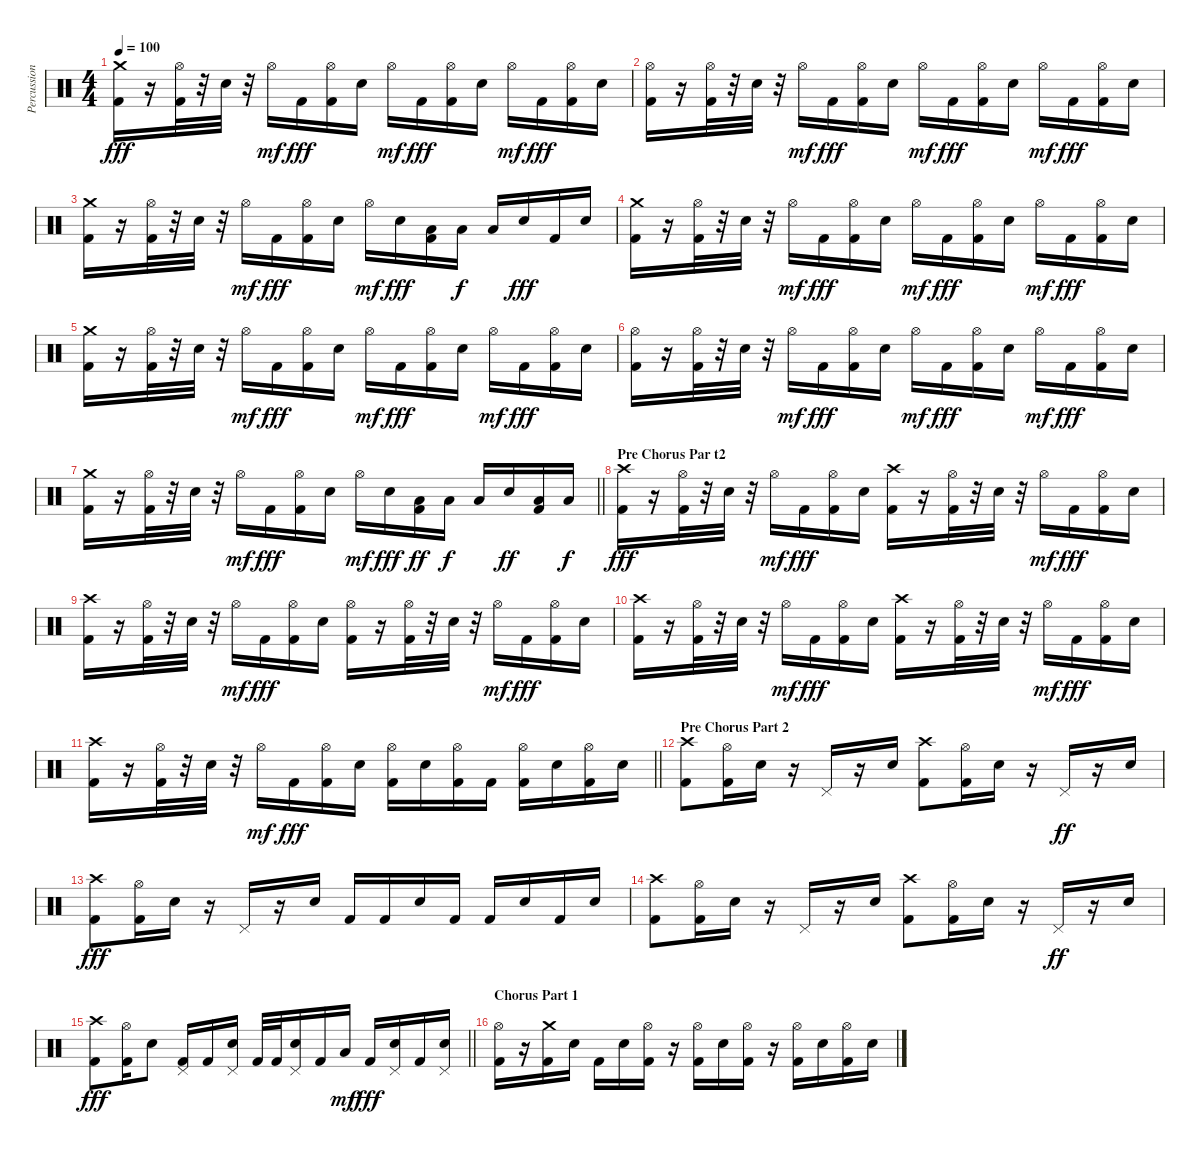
\track ("Percussion" "Percussion") {instrument percussion}
\staff {score}
\articulation defaults
\ts (4 4)
\tempo 100
\clef neutral
\ks c
("Crash medium (hit)" "Kick (hit) 2").16{dy fff} r.16 ("Hi-Hat (open)" "Kick (hit) 2").32 r.32 "Electric Snare (hit)".32 r.32 "Hi-Hat (open)".16{dy mf} "Kick (hit) 2".16{dy fff} ("Hi-Hat (open)" "Kick (hit) 2").16 "Electric Snare (hit)".16 "Hi-Hat (open)".16{dy mf} "Kick (hit) 2".16{dy fff} ("Hi-Hat (open)" "Kick (hit) 2").16 "Electric Snare (hit)".16 "Hi-Hat (open)".16{dy mf} "Kick (hit) 2".16{dy fff} ("Hi-Hat (open)" "Kick (hit) 2").16 "Electric Snare (hit)".16 |
("Hi-Hat (open)" "Kick (hit) 2").16 r.16 ("Hi-Hat (open)" "Kick (hit) 2").32 r.32 "Electric Snare (hit)".32 r.32 "Hi-Hat (open)".16{dy mf} "Kick (hit) 2".16{dy fff} ("Hi-Hat (open)" "Kick (hit) 2").16 "Electric Snare (hit)".16 "Hi-Hat (open)".16{dy mf} "Kick (hit) 2".16{dy fff} ("Hi-Hat (open)" "Kick (hit) 2").16 "Electric Snare (hit)".16 "Hi-Hat (open)".16{dy mf} "Kick (hit) 2".16{dy fff} ("Hi-Hat (open)" "Kick (hit) 2").16 "Electric Snare (hit)".16 |
("Crash medium (hit)" "Kick (hit) 2").16 r.16 ("Hi-Hat (open)" "Kick (hit) 2").32 r.32 "Electric Snare (hit)".32 r.32 "Hi-Hat (open)".16{dy mf} "Kick (hit) 2".16{dy fff} ("Hi-Hat (open)" "Kick (hit) 2").16 "Electric Snare (hit)".16 "Hi-Hat (open)".16{dy mf} "Electric Snare (hit)".16{dy fff} ("Low Floor Tom (hit)" "Kick (hit) 2").16 "Low Floor Tom (hit)".16{dy f} "Low Floor Tom (hit)".16 "Electric Snare (hit)".16{dy fff} "Kick (hit) 2".16 "Electric Snare (hit)".16 |
("Crash medium (hit)" "Kick (hit) 2").16 r.16 ("Hi-Hat (open)" "Kick (hit) 2").32 r.32 "Electric Snare (hit)".32 r.32 "Hi-Hat (open)".16{dy mf} "Kick (hit) 2".16{dy fff} ("Hi-Hat (open)" "Kick (hit) 2").16 "Electric Snare (hit)".16 "Hi-Hat (open)".16{dy mf} "Kick (hit) 2".16{dy fff} ("Hi-Hat (open)" "Kick (hit) 2").16 "Electric Snare (hit)".16 "Hi-Hat (open)".16{dy mf} "Kick (hit) 2".16{dy fff} ("Hi-Hat (open)" "Kick (hit) 2").16 "Electric Snare (hit)".16 |
("Crash medium (hit)" "Kick (hit) 2").16 r.16 ("Hi-Hat (open)" "Kick (hit) 2").32 r.32 "Electric Snare (hit)".32 r.32 "Hi-Hat (open)".16{dy mf} "Kick (hit) 2".16{dy fff} ("Hi-Hat (open)" "Kick (hit) 2").16 "Electric Snare (hit)".16 "Hi-Hat (open)".16{dy mf} "Kick (hit) 2".16{dy fff} ("Hi-Hat (open)" "Kick (hit) 2").16 "Electric Snare (hit)".16 "Hi-Hat (open)".16{dy mf} "Kick (hit) 2".16{dy fff} ("Hi-Hat (open)" "Kick (hit) 2").16 "Electric Snare (hit)".16 |
("Hi-Hat (open)" "Kick (hit) 2").16 r.16 ("Hi-Hat (open)" "Kick (hit) 2").32 r.32 "Electric Snare (hit)".32 r.32 "Hi-Hat (open)".16{dy mf} "Kick (hit) 2".16{dy fff} ("Hi-Hat (open)" "Kick (hit) 2").16 "Electric Snare (hit)".16 "Hi-Hat (open)".16{dy mf} "Kick (hit) 2".16{dy fff} ("Hi-Hat (open)" "Kick (hit) 2").16 "Electric Snare (hit)".16 "Hi-Hat (open)".16{dy mf} "Kick (hit) 2".16{dy fff} ("Hi-Hat (open)" "Kick (hit) 2").16 "Electric Snare (hit)".16 |
\barLineRight lightlight
("Crash medium (hit)" "Kick (hit) 2").16 r.16 ("Hi-Hat (open)" "Kick (hit) 2").32 r.32 "Electric Snare (hit)".32 r.32 "Hi-Hat (open)".16{dy mf} "Kick (hit) 2".16{dy fff} ("Hi-Hat (open)" "Kick (hit) 2").16 "Electric Snare (hit)".16 "Hi-Hat (open)".16{dy mf} "Electric Snare (hit)".16{dy fff} ("Low Floor Tom (hit)" "Kick (hit) 2").16{dy ff} "Low Floor Tom (hit)".16{dy f} "Low Floor Tom (hit)".16 "Electric Snare (hit)".16{dy ff} ("Low Floor Tom (hit)" "Kick (hit) 2").16 "Low Floor Tom (hit)".16{dy f} |
\section ("" "Pre Chorus Par t2")
("Crash high (hit)" "Kick (hit) 2").16{dy fff} r.16 ("Hi-Hat (open)" "Kick (hit) 2").32 r.32 "Electric Snare (hit)".32 r.32 "Hi-Hat (open)".16{dy mf} "Kick (hit) 2".16{dy fff} ("Hi-Hat (open)" "Kick (hit) 2").16 "Electric Snare (hit)".16 ("Crash high (hit)" "Kick (hit) 2").16 r.16 ("Hi-Hat (open)" "Kick (hit) 2").32 r.32 "Electric Snare (hit)".32 r.32 "Hi-Hat (open)".16{dy mf} "Kick (hit) 2".16{dy fff} ("Hi-Hat (open)" "Kick (hit) 2").16 "Electric Snare (hit)".16 |
("Crash high (hit)" "Kick (hit) 2").16 r.16 ("Hi-Hat (open)" "Kick (hit) 2").32 r.32 "Electric Snare (hit)".32 r.32 "Hi-Hat (open)".16{dy mf} "Kick (hit) 2".16{dy fff} ("Hi-Hat (open)" "Kick (hit) 2").16 "Electric Snare (hit)".16 ("Hi-Hat (open)" "Kick (hit) 2").16 r.16 ("Hi-Hat (open)" "Kick (hit) 2").32 r.32 "Electric Snare (hit)".32 r.32 "Hi-Hat (open)".16{dy mf} "Kick (hit) 2".16{dy fff} ("Hi-Hat (open)" "Kick (hit) 2").16 "Electric Snare (hit)".16 |
("Crash high (hit)" "Kick (hit) 2").16 r.16 ("Hi-Hat (open)" "Kick (hit) 2").32 r.32 "Electric Snare (hit)".32 r.32 "Hi-Hat (open)".16{dy mf} "Kick (hit) 2".16{dy fff} ("Hi-Hat (open)" "Kick (hit) 2").16 "Electric Snare (hit)".16 ("Crash high (hit)" "Kick (hit) 2").16 r.16 ("Hi-Hat (open)" "Kick (hit) 2").32 r.32 "Electric Snare (hit)".32 r.32 "Hi-Hat (open)".16{dy mf} "Kick (hit) 2".16{dy fff} ("Hi-Hat (open)" "Kick (hit) 2").16 "Electric Snare (hit)".16 |
\barLineRight lightlight
("Crash high (hit)" "Kick (hit) 2").16 r.16 ("Hi-Hat (open)" "Kick (hit) 2").32 r.32 "Electric Snare (hit)".32 r.32 "Hi-Hat (open)".16{dy mf} "Kick (hit) 2".16{dy fff} ("Hi-Hat (open)" "Kick (hit) 2").16 "Electric Snare (hit)".16 ("Hi-Hat (open)" "Kick (hit) 2").16 "Electric Snare (hit)".16 ("Hi-Hat (open)" "Kick (hit) 2").16 "Kick (hit) 2".16 ("Hi-Hat (open)" "Kick (hit) 2").16 "Electric Snare (hit)".16 ("Hi-Hat (open)" "Kick (hit) 2").16 "Electric Snare (hit)".16 |
\section ("" "Pre Chorus Part 2")
("Crash high (hit)" "Kick (hit) 2").8 ("Hi-Hat (open)" "Kick (hit) 2").16 "Electric Snare (hit)".16 r.16 "Pedal Hi-Hat (hit)".16 r.16 "Electric Snare (hit)".16 ("Crash high (hit)" "Kick (hit) 2").8 ("Hi-Hat (open)" "Kick (hit) 2").16 "Electric Snare (hit)".16 r.16 "Pedal Hi-Hat (hit)".16{dy ff} r.16 "Electric Snare (hit)".16 |
("Crash high (hit)" "Kick (hit) 2").8{dy fff} ("Hi-Hat (open)" "Kick (hit) 2").16 "Electric Snare (hit)".16 r.16 "Pedal Hi-Hat (hit)".16 r.16 "Electric Snare (hit)".16 "Kick (hit) 2".16 "Kick (hit) 2".16 "Electric Snare (hit)".16 "Kick (hit) 2".16 "Kick (hit) 2".16 "Electric Snare (hit)".16 "Kick (hit) 2".16 "Electric Snare (hit)".16 |
("Crash high (hit)" "Kick (hit) 2").8 ("Hi-Hat (open)" "Kick (hit) 2").16 "Electric Snare (hit)".16 r.16 "Pedal Hi-Hat (hit)".16 r.16 "Electric Snare (hit)".16 ("Crash high (hit)" "Kick (hit) 2").8 ("Hi-Hat (open)" "Kick (hit) 2").16 "Electric Snare (hit)".16 r.16 "Pedal Hi-Hat (hit)".16{dy ff} r.16 "Electric Snare (hit)".16 |
\barLineRight lightlight
("Crash high (hit)" "Kick (hit) 2").8{dy fff} ("Hi-Hat (open)" "Kick (hit) 2").16 "Electric Snare (hit)".8 ("Pedal Hi-Hat (hit)" "Kick (hit) 2").16 "Kick (hit) 2".16 ("Pedal Hi-Hat (hit)" "Electric Snare (hit)").16 "Kick (hit) 2".32 "Kick (hit) 2".32 ("Pedal Hi-Hat (hit)" "Electric Snare (hit)").16 "Kick (hit) 2".16 "Low Floor Tom (hit)".16{dy mf} "Kick (hit) 2".16{dy fff} ("Pedal Hi-Hat (hit)" "Electric Snare (hit)").16 "Kick (hit) 2".16 ("Pedal Hi-Hat (hit)" "Electric Snare (hit)").16 |
\section ("" "Chorus Part 1")
("Hi-Hat (open)" "Kick (hit) 2").16 r.16 ("Crash medium (hit)" "Kick (hit) 2").16 "Electric Snare (hit)".16 "Kick (hit) 2".16 "Electric Snare (hit)".16 ("Hi-Hat (open)" "Kick (hit) 2").16 r.16 ("Hi-Hat (open)" "Kick (hit) 2").16 "Electric Snare (hit)".16 ("Hi-Hat (open)" "Kick (hit) 2").16 r.16 ("Hi-Hat (open)" "Kick (hit) 2").16 "Electric Snare (hit)".16 ("Hi-Hat (open)" "Kick (hit) 2").16 "Electric Snare (hit)".16
